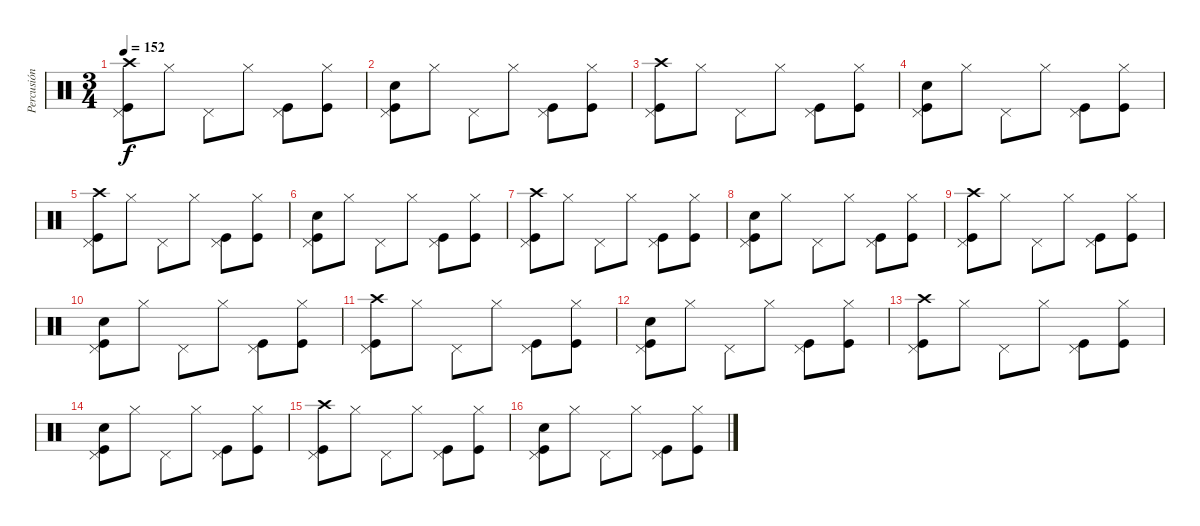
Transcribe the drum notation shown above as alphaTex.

\track ("Percusión" "Percusión") {instrument percussion}
\staff {score}
\articulation defaults
\ts (3 4)
\tempo 152
\clef neutral
\ks c
("Crash high (hit)" "Pedal Hi-Hat (hit)" "Kick (hit)").8{dy f} "Hi-Hat (closed)".8 "Pedal Hi-Hat (hit)".8 "Hi-Hat (closed)".8 ("Pedal Hi-Hat (hit)" "Kick (hit)").8 ("Hi-Hat (closed)" "Kick (hit)").8 |
("Pedal Hi-Hat (hit)" "Snare (hit) 2" "Kick (hit)").8 "Hi-Hat (closed)".8 "Pedal Hi-Hat (hit)".8 "Hi-Hat (closed)".8 ("Pedal Hi-Hat (hit)" "Kick (hit)").8 ("Hi-Hat (closed)" "Kick (hit)").8 |
("Crash high (hit)" "Pedal Hi-Hat (hit)" "Kick (hit)").8 "Hi-Hat (closed)".8 "Pedal Hi-Hat (hit)".8 "Hi-Hat (closed)".8 ("Pedal Hi-Hat (hit)" "Kick (hit)").8 ("Hi-Hat (closed)" "Kick (hit)").8 |
("Pedal Hi-Hat (hit)" "Snare (hit) 2" "Kick (hit)").8 "Hi-Hat (closed)".8 "Pedal Hi-Hat (hit)".8 "Hi-Hat (closed)".8 ("Pedal Hi-Hat (hit)" "Kick (hit)").8 ("Hi-Hat (closed)" "Kick (hit)").8 |
("Crash high (hit)" "Pedal Hi-Hat (hit)" "Kick (hit)").8 "Hi-Hat (closed)".8 "Pedal Hi-Hat (hit)".8 "Hi-Hat (closed)".8 ("Pedal Hi-Hat (hit)" "Kick (hit)").8 ("Hi-Hat (closed)" "Kick (hit)").8 |
("Pedal Hi-Hat (hit)" "Snare (hit) 2" "Kick (hit)").8 "Hi-Hat (closed)".8 "Pedal Hi-Hat (hit)".8 "Hi-Hat (closed)".8 ("Pedal Hi-Hat (hit)" "Kick (hit)").8 ("Hi-Hat (closed)" "Kick (hit)").8 |
("Crash high (hit)" "Pedal Hi-Hat (hit)" "Kick (hit)").8 "Hi-Hat (closed)".8 "Pedal Hi-Hat (hit)".8 "Hi-Hat (closed)".8 ("Pedal Hi-Hat (hit)" "Kick (hit)").8 ("Hi-Hat (closed)" "Kick (hit)").8 |
("Pedal Hi-Hat (hit)" "Snare (hit) 2" "Kick (hit)").8 "Hi-Hat (closed)".8 "Pedal Hi-Hat (hit)".8 "Hi-Hat (closed)".8 ("Pedal Hi-Hat (hit)" "Kick (hit)").8 ("Hi-Hat (closed)" "Kick (hit)").8 |
("Crash high (hit)" "Pedal Hi-Hat (hit)" "Kick (hit)").8 "Hi-Hat (closed)".8 "Pedal Hi-Hat (hit)".8 "Hi-Hat (closed)".8 ("Pedal Hi-Hat (hit)" "Kick (hit)").8 ("Hi-Hat (closed)" "Kick (hit)").8 |
("Pedal Hi-Hat (hit)" "Snare (hit) 2" "Kick (hit)").8 "Hi-Hat (closed)".8 "Pedal Hi-Hat (hit)".8 "Hi-Hat (closed)".8 ("Pedal Hi-Hat (hit)" "Kick (hit)").8 ("Hi-Hat (closed)" "Kick (hit)").8 |
("Crash high (hit)" "Pedal Hi-Hat (hit)" "Kick (hit)").8 "Hi-Hat (closed)".8 "Pedal Hi-Hat (hit)".8 "Hi-Hat (closed)".8 ("Pedal Hi-Hat (hit)" "Kick (hit)").8 ("Hi-Hat (closed)" "Kick (hit)").8 |
("Pedal Hi-Hat (hit)" "Snare (hit) 2" "Kick (hit)").8 "Hi-Hat (closed)".8 "Pedal Hi-Hat (hit)".8 "Hi-Hat (closed)".8 ("Pedal Hi-Hat (hit)" "Kick (hit)").8 ("Hi-Hat (closed)" "Kick (hit)").8 |
("Crash high (hit)" "Pedal Hi-Hat (hit)" "Kick (hit)").8 "Hi-Hat (closed)".8 "Pedal Hi-Hat (hit)".8 "Hi-Hat (closed)".8 ("Pedal Hi-Hat (hit)" "Kick (hit)").8 ("Hi-Hat (closed)" "Kick (hit)").8 |
("Pedal Hi-Hat (hit)" "Snare (hit) 2" "Kick (hit)").8 "Hi-Hat (closed)".8 "Pedal Hi-Hat (hit)".8 "Hi-Hat (closed)".8 ("Pedal Hi-Hat (hit)" "Kick (hit)").8 ("Hi-Hat (closed)" "Kick (hit)").8 |
("Crash high (hit)" "Pedal Hi-Hat (hit)" "Kick (hit)").8 "Hi-Hat (closed)".8 "Pedal Hi-Hat (hit)".8 "Hi-Hat (closed)".8 ("Pedal Hi-Hat (hit)" "Kick (hit)").8 ("Hi-Hat (closed)" "Kick (hit)").8 |
("Pedal Hi-Hat (hit)" "Snare (hit) 2" "Kick (hit)").8 "Hi-Hat (closed)".8 "Pedal Hi-Hat (hit)".8 "Hi-Hat (closed)".8 ("Pedal Hi-Hat (hit)" "Kick (hit)").8 ("Hi-Hat (closed)" "Kick (hit)").8
